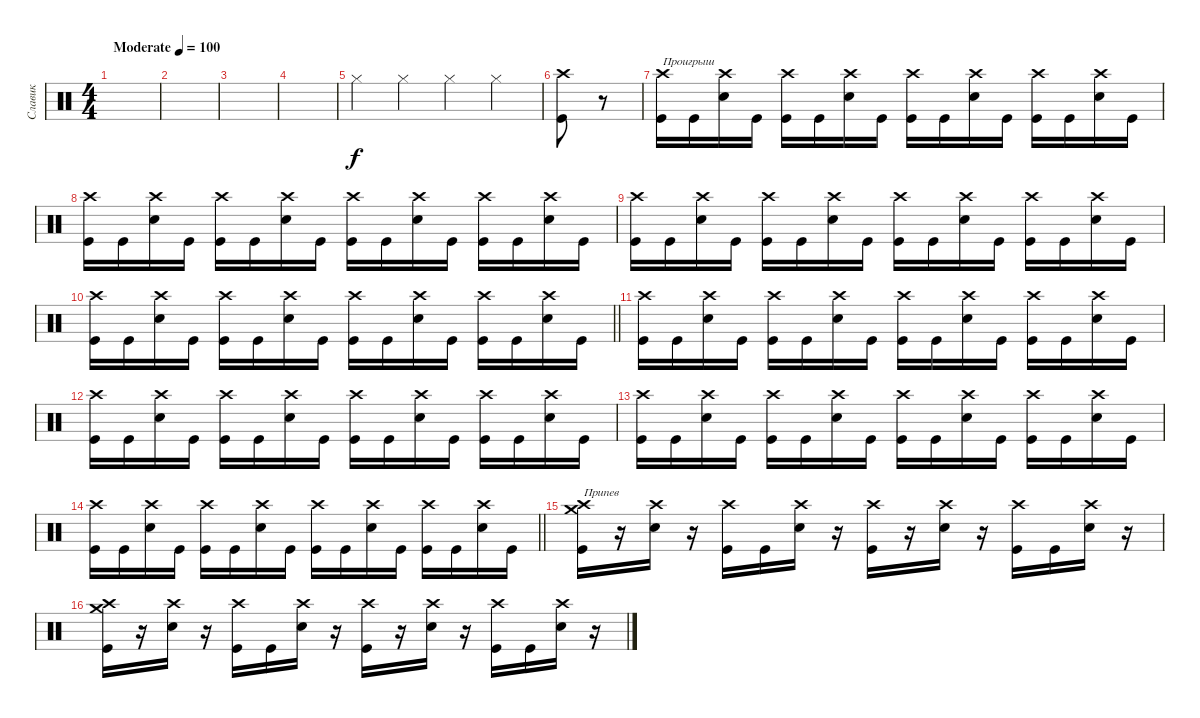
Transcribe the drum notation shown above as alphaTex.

\track ("Славик" "Славик") {instrument percussion}
\staff {score}
\articulation defaults
\ts (4 4)
\tempo (100 "Moderate")
\clef neutral
\ks c
|
|
|
|
"Hi-Hat (closed)".4 "Hi-Hat (closed)".4 "Hi-Hat (closed)".4 "Hi-Hat (closed)".4 |
("Kick (hit)" "Crash high (hit)").8 r.8 |
("Kick (hit)" "Crash high (hit)").16{txt "Проигрыш"} "Kick (hit)".16 ("Electric Snare (hit)" "Crash high (hit)").16 "Kick (hit)".16 ("Kick (hit)" "Crash high (hit)").16 "Kick (hit)".16 ("Electric Snare (hit)" "Crash high (hit)").16 "Kick (hit)".16 ("Kick (hit)" "Crash high (hit)").16 "Kick (hit)".16 ("Electric Snare (hit)" "Crash high (hit)").16 "Kick (hit)".16 ("Kick (hit)" "Crash high (hit)").16 "Kick (hit)".16 ("Electric Snare (hit)" "Crash high (hit)").16 "Kick (hit)".16 |
("Kick (hit)" "Crash high (hit)").16 "Kick (hit)".16 ("Electric Snare (hit)" "Crash high (hit)").16 "Kick (hit)".16 ("Kick (hit)" "Crash high (hit)").16 "Kick (hit)".16 ("Electric Snare (hit)" "Crash high (hit)").16 "Kick (hit)".16 ("Kick (hit)" "Crash high (hit)").16 "Kick (hit)".16 ("Electric Snare (hit)" "Crash high (hit)").16 "Kick (hit)".16 ("Kick (hit)" "Crash high (hit)").16 "Kick (hit)".16 ("Electric Snare (hit)" "Crash high (hit)").16 "Kick (hit)".16 |
("Kick (hit)" "Crash high (hit)").16 "Kick (hit)".16 ("Electric Snare (hit)" "Crash high (hit)").16 "Kick (hit)".16 ("Kick (hit)" "Crash high (hit)").16 "Kick (hit)".16 ("Electric Snare (hit)" "Crash high (hit)").16 "Kick (hit)".16 ("Kick (hit)" "Crash high (hit)").16 "Kick (hit)".16 ("Electric Snare (hit)" "Crash high (hit)").16 "Kick (hit)".16 ("Kick (hit)" "Crash high (hit)").16 "Kick (hit)".16 ("Electric Snare (hit)" "Crash high (hit)").16 "Kick (hit)".16 |
\barLineRight lightlight
("Kick (hit)" "Crash high (hit)").16 "Kick (hit)".16 ("Electric Snare (hit)" "Crash high (hit)").16 "Kick (hit)".16 ("Kick (hit)" "Crash high (hit)").16 "Kick (hit)".16 ("Electric Snare (hit)" "Crash high (hit)").16 "Kick (hit)".16 ("Kick (hit)" "Crash high (hit)").16 "Kick (hit)".16 ("Electric Snare (hit)" "Crash high (hit)").16 "Kick (hit)".16 ("Kick (hit)" "Crash high (hit)").16 "Kick (hit)".16 ("Electric Snare (hit)" "Crash high (hit)").16 "Kick (hit)".16 |
("Kick (hit)" "Crash high (hit)").16 "Kick (hit)".16 ("Electric Snare (hit)" "Crash high (hit)").16 "Kick (hit)".16 ("Kick (hit)" "Crash high (hit)").16 "Kick (hit)".16 ("Electric Snare (hit)" "Crash high (hit)").16 "Kick (hit)".16 ("Kick (hit)" "Crash high (hit)").16 "Kick (hit)".16 ("Electric Snare (hit)" "Crash high (hit)").16 "Kick (hit)".16 ("Kick (hit)" "Crash high (hit)").16 "Kick (hit)".16 ("Electric Snare (hit)" "Crash high (hit)").16 "Kick (hit)".16 |
("Kick (hit)" "Crash high (hit)").16 "Kick (hit)".16 ("Electric Snare (hit)" "Crash high (hit)").16 "Kick (hit)".16 ("Kick (hit)" "Crash high (hit)").16 "Kick (hit)".16 ("Electric Snare (hit)" "Crash high (hit)").16 "Kick (hit)".16 ("Kick (hit)" "Crash high (hit)").16 "Kick (hit)".16 ("Electric Snare (hit)" "Crash high (hit)").16 "Kick (hit)".16 ("Kick (hit)" "Crash high (hit)").16 "Kick (hit)".16 ("Electric Snare (hit)" "Crash high (hit)").16 "Kick (hit)".16 |
("Kick (hit)" "Crash high (hit)").16 "Kick (hit)".16 ("Electric Snare (hit)" "Crash high (hit)").16 "Kick (hit)".16 ("Kick (hit)" "Crash high (hit)").16 "Kick (hit)".16 ("Electric Snare (hit)" "Crash high (hit)").16 "Kick (hit)".16 ("Kick (hit)" "Crash high (hit)").16 "Kick (hit)".16 ("Electric Snare (hit)" "Crash high (hit)").16 "Kick (hit)".16 ("Kick (hit)" "Crash high (hit)").16 "Kick (hit)".16 ("Electric Snare (hit)" "Crash high (hit)").16 "Kick (hit)".16 |
\barLineRight lightlight
("Kick (hit)" "Crash high (hit)").16 "Kick (hit)".16 ("Electric Snare (hit)" "Crash high (hit)").16 "Kick (hit)".16 ("Kick (hit)" "Crash high (hit)").16 "Kick (hit)".16 ("Electric Snare (hit)" "Crash high (hit)").16 "Kick (hit)".16 ("Kick (hit)" "Crash high (hit)").16 "Kick (hit)".16 ("Electric Snare (hit)" "Crash high (hit)").16 "Kick (hit)".16 ("Kick (hit)" "Crash high (hit)").16 "Kick (hit)".16 ("Electric Snare (hit)" "Crash high (hit)").16 "Kick (hit)".16 |
("Kick (hit)" "Crash high (hit)" "Crash medium (hit)").16{txt "Припев"} r.16 ("Electric Snare (hit)" "Crash high (hit)").16 r.16 ("Kick (hit)" "Crash high (hit)").16 "Kick (hit)".16 ("Electric Snare (hit)" "Crash high (hit)").16 r.16 ("Kick (hit)" "Crash high (hit)").16 r.16 ("Electric Snare (hit)" "Crash high (hit)").16 r.16 ("Kick (hit)" "Crash high (hit)").16 "Kick (hit)".16 ("Electric Snare (hit)" "Crash high (hit)").16 r.16 |
("Kick (hit)" "Crash high (hit)" "Crash medium (hit)").16 r.16 ("Electric Snare (hit)" "Crash high (hit)").16 r.16 ("Kick (hit)" "Crash high (hit)").16 "Kick (hit)".16 ("Electric Snare (hit)" "Crash high (hit)").16 r.16 ("Kick (hit)" "Crash high (hit)").16 r.16 ("Electric Snare (hit)" "Crash high (hit)").16 r.16 ("Kick (hit)" "Crash high (hit)").16 "Kick (hit)".16 ("Electric Snare (hit)" "Crash high (hit)").16 r.16
